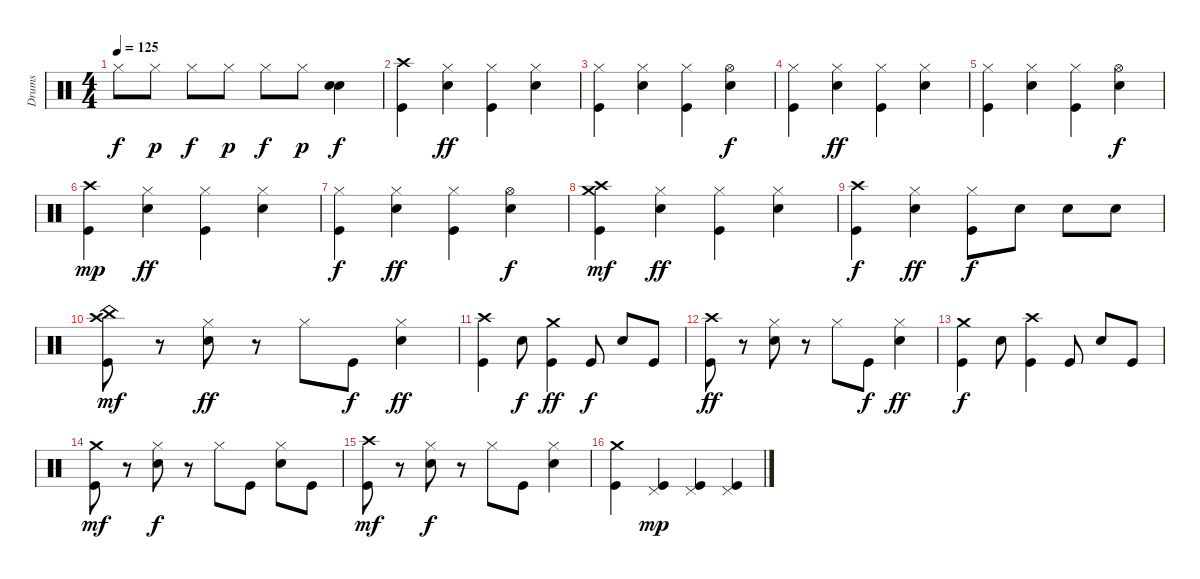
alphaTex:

\track ("Drums" "Drums") {instrument percussion}
\staff {score}
\articulation defaults
\ts (4 4)
\tempo 125
\clef neutral
\ks c "Hi-Hat (closed)".8{dy f} "Hi-Hat (closed)".8{dy p} "Hi-Hat (closed)".8{dy f} "Hi-Hat (closed)".8{dy p} "Hi-Hat (closed)".8{dy f} "Hi-Hat (closed)".8{dy p}
("Snare (hit) 2" "Snare (hit) 2").4{dy f} |
("Crash high (hit)" "Kick (hit)").4 ("Hi-Hat (closed)" "Snare (hit) 2").4{dy ff} ("Hi-Hat (closed)" "Kick (hit)").4 ("Hi-Hat (closed)" "Snare (hit) 2").4 |
("Hi-Hat (closed)" "Kick (hit)").4 ("Hi-Hat (closed)" "Snare (hit) 2").4 ("Hi-Hat (closed)" "Kick (hit)").4 ("Hi-Hat (open)" "Snare (hit) 2").4{dy f} |
("Hi-Hat (closed)" "Kick (hit)").4 ("Hi-Hat (closed)" "Snare (hit) 2").4{dy ff} ("Hi-Hat (closed)" "Kick (hit)").4 ("Hi-Hat (closed)" "Snare (hit) 2").4 |
("Hi-Hat (closed)" "Kick (hit)").4 ("Hi-Hat (closed)" "Snare (hit) 2").4 ("Hi-Hat (closed)" "Kick (hit)").4 ("Hi-Hat (open)" "Snare (hit) 2").4{dy f} |
("Kick (hit)" "Crash high (hit)").4{dy mp} ("Snare (hit) 2" "Hi-Hat (closed)").4{dy ff} ("Kick (hit)" "Hi-Hat (closed)").4 ("Snare (hit) 2" "Hi-Hat (closed)").4 |
("Hi-Hat (closed)" "Kick (hit)").4{dy f} ("Hi-Hat (closed)" "Snare (hit) 2").4{dy ff} ("Hi-Hat (closed)" "Kick (hit)").4 ("Hi-Hat (open)" "Snare (hit) 2").4{dy f} |
("Crash high (hit)" "Crash medium (hit)" "Kick (hit)").4{dy mf} ("Snare (hit) 2" "Hi-Hat (closed)").4{dy ff} ("Kick (hit)" "Hi-Hat (closed)").4 ("Snare (hit) 2" "Hi-Hat (closed)").4 |
("Crash high (hit)" "Kick (hit)").4{dy f} ("Hi-Hat (closed)" "Snare (hit) 2").4{dy ff} ("Kick (hit)" "Hi-Hat (closed)").8{dy f} "Snare (hit) 2".8 "Snare (hit) 2".8 "Snare (hit) 2".8 |
("Kick (hit)" "China (hit)" "Crash high (hit)").8{dy mf} r.8 ("Snare (hit) 2" "Hi-Hat (closed)").8{dy ff} r.8 "Hi-Hat (closed)".8 "Kick (hit)".8{dy f} ("Snare (hit) 2" "Hi-Hat (closed)").4{dy ff} |
("Crash high (hit)" "Kick (hit)").4 "Snare (hit) 2".8{dy f} ("Crash medium (hit)" "Kick (hit)").4{dy ff} "Kick (hit)".8{dy f} "Snare (hit) 2".8 "Kick (hit)".8 |
("Kick (hit)" "Crash high (hit)").8{dy ff} r.8 ("Snare (hit) 2" "Hi-Hat (closed)").8 r.8 "Hi-Hat (closed)".8 "Kick (hit)".8{dy f} ("Snare (hit) 2" "Hi-Hat (closed)").4{dy ff} |
("Crash medium (hit)" "Kick (hit)").4{dy f} "Snare (hit) 2".8 ("Crash high (hit)" "Kick (hit)").4 "Kick (hit)".8 "Snare (hit) 2".8 "Kick (hit)".8 |
("Kick (hit)" "Crash medium (hit)").8{dy mf} r.8 ("Snare (hit) 2" "Hi-Hat (closed)").8{dy f} r.8 "Hi-Hat (closed)".8 "Kick (hit)".8 ("Snare (hit) 2" "Hi-Hat (closed)").8 "Kick (hit)".8 |
("Kick (hit)" "Crash high (hit)").8{dy mf} r.8 ("Snare (hit) 2" "Hi-Hat (closed)").8{dy f} r.8 "Hi-Hat (closed)".8 "Kick (hit)".8 ("Snare (hit) 2" "Hi-Hat (closed)").4 |
("Crash medium (hit)" "Kick (hit)").4 ("Kick (hit)" "Pedal Hi-Hat (hit)").4{dy mp} ("Kick (hit)" "Pedal Hi-Hat (hit)").4 ("Kick (hit)" "Pedal Hi-Hat (hit)").4
